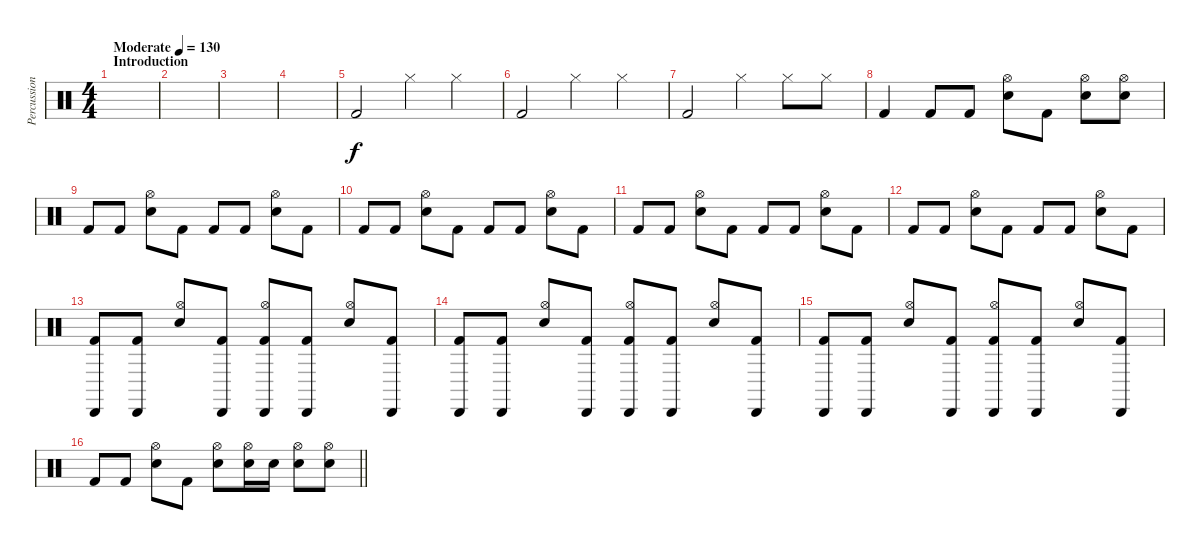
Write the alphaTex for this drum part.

\track ("Percussion" "Percussion") {instrument percussion}
\staff {score}
\articulation defaults
\ts (4 4)
\section ("" "Introduction")
\tempo (130 "Moderate")
\clef neutral
\ks c
|
|
|
|
"Kick (hit) 2".2 "Hi-Hat (closed)".4 "Hi-Hat (closed)".4 |
"Kick (hit) 2".2 "Hi-Hat (closed)".4 "Hi-Hat (closed)".4 |
"Kick (hit) 2".2 "Hi-Hat (closed)".4 "Hi-Hat (closed)".8 "Hi-Hat (closed)".8 |
"Kick (hit) 2".4 "Kick (hit) 2".8 "Kick (hit) 2".8 ("Hi-Hat (open)" "Electric Snare (hit)").8 "Kick (hit) 2".8 ("Hi-Hat (open)" "Electric Snare (hit)").8 ("Hi-Hat (open)" "Electric Snare (hit)").8 |
"Kick (hit) 2".8 "Kick (hit) 2".8 ("Hi-Hat (open)" "Electric Snare (hit)").8 "Kick (hit) 2".8 "Kick (hit) 2".8 "Kick (hit) 2".8 ("Hi-Hat (open)" "Electric Snare (hit)").8 "Kick (hit) 2".8 |
"Kick (hit) 2".8 "Kick (hit) 2".8 ("Hi-Hat (open)" "Electric Snare (hit)").8 "Kick (hit) 2".8 "Kick (hit) 2".8 "Kick (hit) 2".8 ("Hi-Hat (open)" "Electric Snare (hit)").8 "Kick (hit) 2".8 |
"Kick (hit) 2".8 "Kick (hit) 2".8 ("Hi-Hat (open)" "Electric Snare (hit)").8 "Kick (hit) 2".8 "Kick (hit) 2".8 "Kick (hit) 2".8 ("Hi-Hat (open)" "Electric Snare (hit)").8 "Kick (hit) 2".8 |
"Kick (hit) 2".8 "Kick (hit) 2".8 ("Hi-Hat (open)" "Electric Snare (hit)").8 "Kick (hit) 2".8 "Kick (hit) 2".8 "Kick (hit) 2".8 ("Hi-Hat (open)" "Electric Snare (hit)").8 "Kick (hit) 2".8 |
("Cabasa (hit)" "Kick (hit) 2").8 ("Cabasa (hit)" "Kick (hit) 2").8 ("Hi-Hat (open)" "Electric Snare (hit)").8 ("Cabasa (hit)" "Kick (hit) 2").8 ("Cabasa (hit)" "Hi-Hat (open)" "Kick (hit) 2").8 ("Cabasa (hit)" "Kick (hit) 2").8 ("Hi-Hat (open)" "Electric Snare (hit)").8 ("Cabasa (hit)" "Kick (hit) 2").8 |
("Cabasa (hit)" "Kick (hit) 2").8 ("Cabasa (hit)" "Kick (hit) 2").8 ("Hi-Hat (open)" "Electric Snare (hit)").8 ("Cabasa (hit)" "Kick (hit) 2").8 ("Cabasa (hit)" "Hi-Hat (open)" "Kick (hit) 2").8 ("Cabasa (hit)" "Kick (hit) 2").8 ("Hi-Hat (open)" "Electric Snare (hit)").8 ("Cabasa (hit)" "Kick (hit) 2").8 |
("Cabasa (hit)" "Kick (hit) 2").8 ("Cabasa (hit)" "Kick (hit) 2").8 ("Hi-Hat (open)" "Electric Snare (hit)").8 ("Cabasa (hit)" "Kick (hit) 2").8 ("Cabasa (hit)" "Hi-Hat (open)" "Kick (hit) 2").8 ("Cabasa (hit)" "Kick (hit) 2").8 ("Hi-Hat (open)" "Electric Snare (hit)").8 ("Cabasa (hit)" "Kick (hit) 2").8 |
\barLineRight lightlight "Kick (hit) 2".8 "Kick (hit) 2".8
("Hi-Hat (open)" "Electric Snare (hit)").8 "Kick (hit) 2".8 ("Hi-Hat (open)" "Electric Snare (hit)").8 ("Hi-Hat (open)" "Electric Snare (hit)").16 "Electric Snare (hit)".16 ("Hi-Hat (open)" "Electric Snare (hit)").8 ("Hi-Hat (open)" "Electric Snare (hit)").8
